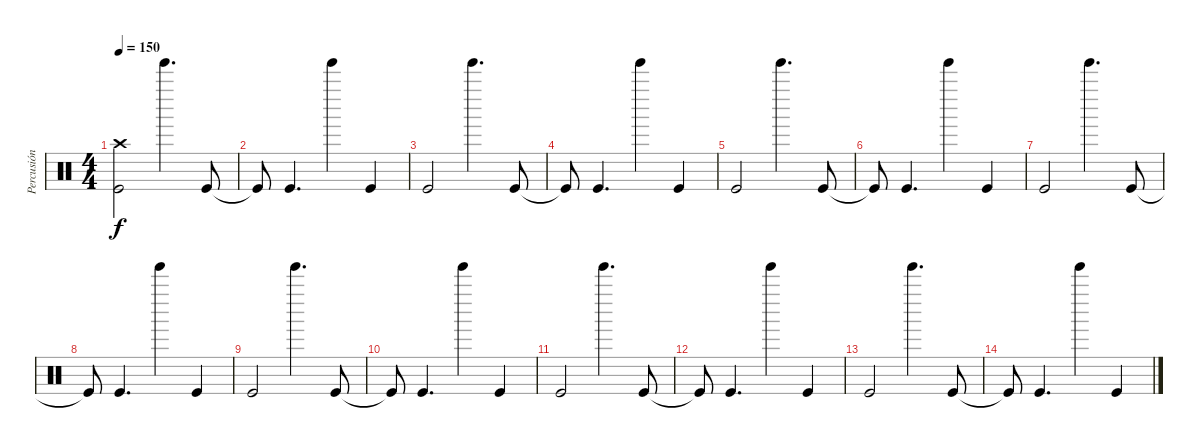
\track ("Percusión" "Percusión") {instrument percussion bank 106}
\staff {score}
\articulation defaults
\ts (4 4)
\tempo 150
\clef neutral
\ks c
("Crash high (hit)" "Kick (hit)").2{dy f} "Tinkle Bell (hit)".4{d} "Kick (hit)".8 |
"Kick (hit)"{t}.8 "Kick (hit)".4{d} "Tinkle Bell (hit)".4 "Kick (hit)".4 |
"Kick (hit)".2 "Tinkle Bell (hit)".4{d} "Kick (hit)".8 |
"Kick (hit)"{t}.8 "Kick (hit)".4{d} "Tinkle Bell (hit)".4 "Kick (hit)".4 |
"Kick (hit)".2 "Tinkle Bell (hit)".4{d} "Kick (hit)".8 |
"Kick (hit)"{t}.8 "Kick (hit)".4{d} "Tinkle Bell (hit)".4 "Kick (hit)".4 |
"Kick (hit)".2 "Tinkle Bell (hit)".4{d} "Kick (hit)".8 |
"Kick (hit)"{t}.8 "Kick (hit)".4{d} "Tinkle Bell (hit)".4 "Kick (hit)".4 |
"Kick (hit)".2 "Tinkle Bell (hit)".4{d} "Kick (hit)".8 |
"Kick (hit)"{t}.8 "Kick (hit)".4{d} "Tinkle Bell (hit)".4 "Kick (hit)".4 |
"Kick (hit)".2 "Tinkle Bell (hit)".4{d} "Kick (hit)".8 |
"Kick (hit)"{t}.8 "Kick (hit)".4{d} "Tinkle Bell (hit)".4 "Kick (hit)".4 |
"Kick (hit)".2 "Tinkle Bell (hit)".4{d} "Kick (hit)".8 |
"Kick (hit)"{t}.8 "Kick (hit)".4{d} "Tinkle Bell (hit)".4 "Kick (hit)".4
